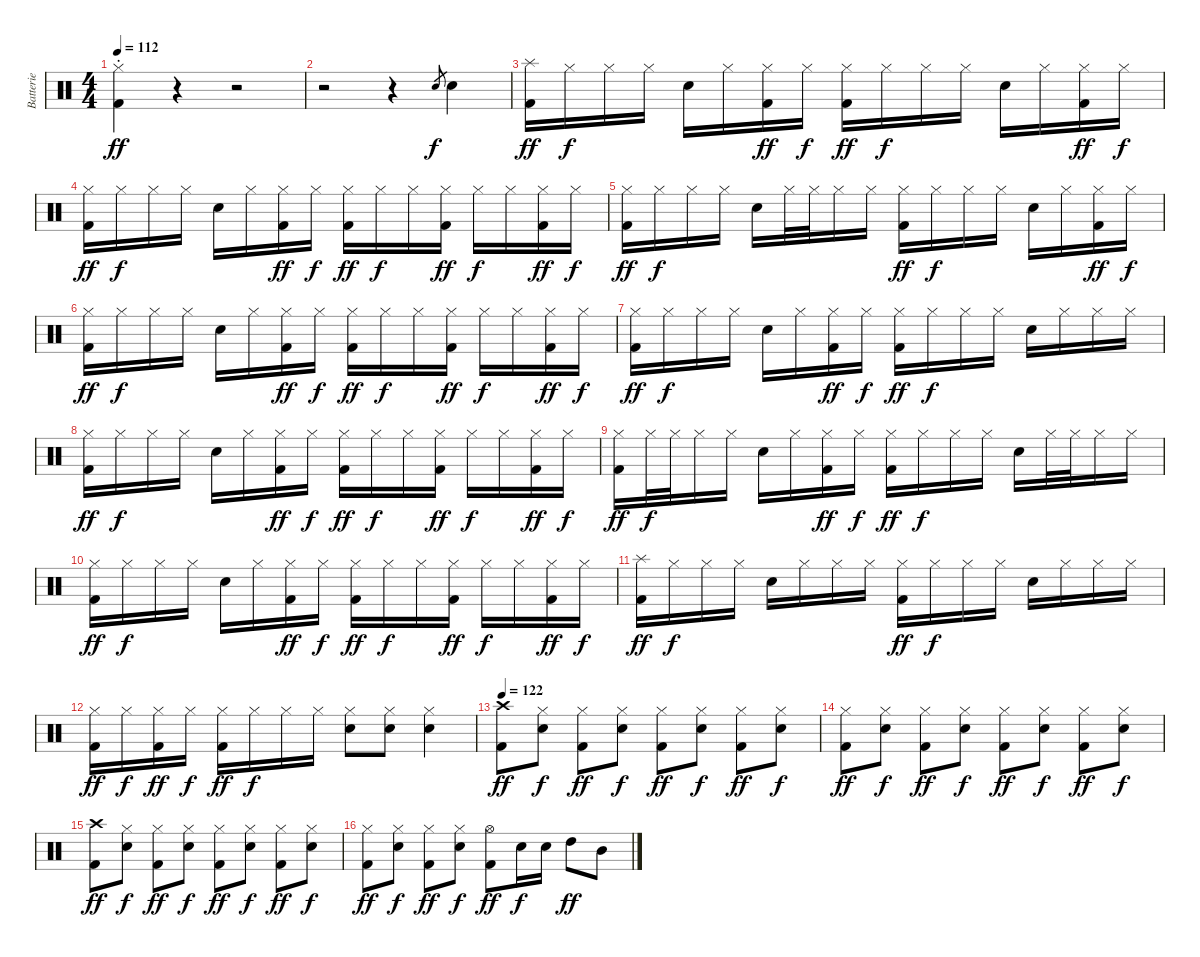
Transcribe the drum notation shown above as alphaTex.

\track ("Batterie" "Batterie") {instrument percussion}
\staff {score}
\articulation defaults
\ts (4 4)
\tempo 112
\clef neutral
\ks c
("Hi-Hat (closed)"{st} "Kick (hit) 2"{st}).4{dy ff} r.4 r.2 |
r.2 r.4 "Snare (hit) 2".8{gr dy f} "Snare (hit) 2".4 |
("Splash (hit)" "Kick (hit) 2").16{dy ff} "Hi-Hat (closed)".16{dy f} "Hi-Hat (closed)".16 "Hi-Hat (closed)".16 "Snare (hit) 2".16 "Hi-Hat (closed)".16 ("Hi-Hat (closed)" "Kick (hit) 2").16{dy ff} "Hi-Hat (closed)".16{dy f} ("Hi-Hat (closed)" "Kick (hit) 2").16{dy ff} "Hi-Hat (closed)".16{dy f} "Hi-Hat (closed)".16 "Hi-Hat (closed)".16 "Snare (hit) 2".16 "Hi-Hat (closed)".16 ("Hi-Hat (closed)" "Kick (hit) 2").16{dy ff} "Hi-Hat (closed)".16{dy f} |
("Hi-Hat (closed)" "Kick (hit) 2").16{dy ff} "Hi-Hat (closed)".16{dy f} "Hi-Hat (closed)".16 "Hi-Hat (closed)".16 "Snare (hit) 2".16 "Hi-Hat (closed)".16 ("Hi-Hat (closed)" "Kick (hit) 2").16{dy ff} "Hi-Hat (closed)".16{dy f} ("Hi-Hat (closed)" "Kick (hit) 2").16{dy ff} "Hi-Hat (closed)".16{dy f} "Hi-Hat (closed)".16 ("Hi-Hat (closed)" "Kick (hit) 2").16{dy ff} "Hi-Hat (closed)".16{dy f} "Hi-Hat (closed)".16 ("Hi-Hat (closed)" "Kick (hit) 2").16{dy ff} "Hi-Hat (closed)".16{dy f} |
("Hi-Hat (closed)" "Kick (hit) 2").16{dy ff} "Hi-Hat (closed)".16{dy f} "Hi-Hat (closed)".16 "Hi-Hat (closed)".16 "Snare (hit) 2".16 "Hi-Hat (closed)".32 "Hi-Hat (closed)".32 "Hi-Hat (closed)".16 "Hi-Hat (closed)".16 ("Hi-Hat (closed)" "Kick (hit) 2").16{dy ff} "Hi-Hat (closed)".16{dy f} "Hi-Hat (closed)".16 "Hi-Hat (closed)".16 "Snare (hit) 2".16 "Hi-Hat (closed)".16 ("Hi-Hat (closed)" "Kick (hit) 2").16{dy ff} "Hi-Hat (closed)".16{dy f} |
("Hi-Hat (closed)" "Kick (hit) 2").16{dy ff} "Hi-Hat (closed)".16{dy f} "Hi-Hat (closed)".16 "Hi-Hat (closed)".16 "Snare (hit) 2".16 "Hi-Hat (closed)".16 ("Hi-Hat (closed)" "Kick (hit) 2").16{dy ff} "Hi-Hat (closed)".16{dy f} ("Hi-Hat (closed)" "Kick (hit) 2").16{dy ff} "Hi-Hat (closed)".16{dy f} "Hi-Hat (closed)".16 ("Hi-Hat (closed)" "Kick (hit) 2").16{dy ff} "Hi-Hat (closed)".16{dy f} "Hi-Hat (closed)".16 ("Hi-Hat (closed)" "Kick (hit) 2").16{dy ff} "Hi-Hat (closed)".16{dy f} |
("Hi-Hat (closed)" "Kick (hit) 2").16{dy ff} "Hi-Hat (closed)".16{dy f} "Hi-Hat (closed)".16 "Hi-Hat (closed)".16 "Snare (hit) 2".16 "Hi-Hat (closed)".16 ("Hi-Hat (closed)" "Kick (hit) 2").16{dy ff} "Hi-Hat (closed)".16{dy f} ("Hi-Hat (closed)" "Kick (hit) 2").16{dy ff} "Hi-Hat (closed)".16{dy f} "Hi-Hat (closed)".16 "Hi-Hat (closed)".16 "Snare (hit) 2".16 "Hi-Hat (closed)".16 "Hi-Hat (closed)".16 "Hi-Hat (closed)".16 |
("Hi-Hat (closed)" "Kick (hit) 2").16{dy ff} "Hi-Hat (closed)".16{dy f} "Hi-Hat (closed)".16 "Hi-Hat (closed)".16 "Snare (hit) 2".16 "Hi-Hat (closed)".16 ("Hi-Hat (closed)" "Kick (hit) 2").16{dy ff} "Hi-Hat (closed)".16{dy f} ("Hi-Hat (closed)" "Kick (hit) 2").16{dy ff} "Hi-Hat (closed)".16{dy f} "Hi-Hat (closed)".16 ("Hi-Hat (closed)" "Kick (hit) 2").16{dy ff} "Hi-Hat (closed)".16{dy f} "Hi-Hat (closed)".16 ("Hi-Hat (closed)" "Kick (hit) 2").16{dy ff} "Hi-Hat (closed)".16{dy f} |
("Hi-Hat (closed)" "Kick (hit) 2").16{dy ff} "Hi-Hat (closed)".32{dy f} "Hi-Hat (closed)".32 "Hi-Hat (closed)".16 "Hi-Hat (closed)".16 "Snare (hit) 2".16 "Hi-Hat (closed)".16 ("Hi-Hat (closed)" "Kick (hit) 2").16{dy ff} "Hi-Hat (closed)".16{dy f} ("Hi-Hat (closed)" "Kick (hit) 2").16{dy ff} "Hi-Hat (closed)".16{dy f} "Hi-Hat (closed)".16 "Hi-Hat (closed)".16 "Snare (hit) 2".16 "Hi-Hat (closed)".32 "Hi-Hat (closed)".32 "Hi-Hat (closed)".16 "Hi-Hat (closed)".16 |
("Hi-Hat (closed)" "Kick (hit) 2").16{dy ff} "Hi-Hat (closed)".16{dy f} "Hi-Hat (closed)".16 "Hi-Hat (closed)".16 "Snare (hit) 2".16 "Hi-Hat (closed)".16 ("Hi-Hat (closed)" "Kick (hit) 2").16{dy ff} "Hi-Hat (closed)".16{dy f} ("Hi-Hat (closed)" "Kick (hit) 2").16{dy ff} "Hi-Hat (closed)".16{dy f} "Hi-Hat (closed)".16 ("Hi-Hat (closed)" "Kick (hit) 2").16{dy ff} "Hi-Hat (closed)".16{dy f} "Hi-Hat (closed)".16 ("Hi-Hat (closed)" "Kick (hit) 2").16{dy ff} "Hi-Hat (closed)".16{dy f} |
("Splash (hit)" "Kick (hit) 2").16{dy ff} "Hi-Hat (closed)".16{dy f} "Hi-Hat (closed)".16 "Hi-Hat (closed)".16 "Snare (hit) 2".16 "Hi-Hat (closed)".16 "Hi-Hat (closed)".16 "Hi-Hat (closed)".16 ("Hi-Hat (closed)" "Kick (hit) 2").16{dy ff} "Hi-Hat (closed)".16{dy f} "Hi-Hat (closed)".16 "Hi-Hat (closed)".16 "Snare (hit) 2".16 "Hi-Hat (closed)".16 "Hi-Hat (closed)".16 "Hi-Hat (closed)".16 |
("Hi-Hat (closed)" "Kick (hit) 2").16{dy ff} "Hi-Hat (closed)".16{dy f} ("Hi-Hat (closed)" "Kick (hit) 2").16{dy ff} "Hi-Hat (closed)".16{dy f} ("Hi-Hat (closed)" "Kick (hit) 2").16{dy ff} "Hi-Hat (closed)".16{dy f} "Hi-Hat (closed)".16 "Hi-Hat (closed)".16 ("Hi-Hat (closed)" "Snare (hit) 2").8 ("Hi-Hat (closed)" "Snare (hit) 2").8 ("Hi-Hat (closed)" "Snare (hit) 2").4 |
\tempo 122
("Crash high (hit)" "Kick (hit) 2").8{dy ff} ("Hi-Hat (closed)" "Snare (hit) 2").8{dy f} ("Hi-Hat (closed)" "Kick (hit) 2").8{dy ff} ("Hi-Hat (closed)" "Snare (hit) 2").8{dy f} ("Hi-Hat (closed)" "Kick (hit) 2").8{dy ff} ("Hi-Hat (closed)" "Snare (hit) 2").8{dy f} ("Hi-Hat (closed)" "Kick (hit) 2").8{dy ff} ("Hi-Hat (closed)" "Snare (hit) 2").8{dy f} |
("Hi-Hat (closed)" "Kick (hit) 2").8{dy ff} ("Hi-Hat (closed)" "Snare (hit) 2").8{dy f} ("Hi-Hat (closed)" "Kick (hit) 2").8{dy ff} ("Hi-Hat (closed)" "Snare (hit) 2").8{dy f} ("Hi-Hat (closed)" "Kick (hit) 2").8{dy ff} ("Hi-Hat (closed)" "Snare (hit) 2").8{dy f} ("Hi-Hat (closed)" "Kick (hit) 2").8{dy ff} ("Hi-Hat (closed)" "Snare (hit) 2").8{dy f} |
("Crash high (hit)" "Kick (hit) 2").8{dy ff} ("Hi-Hat (closed)" "Snare (hit) 2").8{dy f} ("Hi-Hat (closed)" "Kick (hit) 2").8{dy ff} ("Hi-Hat (closed)" "Snare (hit) 2").8{dy f} ("Hi-Hat (closed)" "Kick (hit) 2").8{dy ff} ("Hi-Hat (closed)" "Snare (hit) 2").8{dy f} ("Hi-Hat (closed)" "Kick (hit) 2").8{dy ff} ("Hi-Hat (closed)" "Snare (hit) 2").8{dy f} |
("Hi-Hat (closed)" "Kick (hit) 2").8{dy ff} ("Hi-Hat (closed)" "Snare (hit) 2").8{dy f} ("Hi-Hat (closed)" "Kick (hit) 2").8{dy ff} ("Hi-Hat (closed)" "Snare (hit) 2").8{dy f} ("Hi-Hat (open)" "Kick (hit) 2").8{dy ff} "Snare (hit) 2".16{dy f} "Snare (hit) 2".16 "High Tom (hit)".8{dy ff} "Mid Tom (hit)".8
